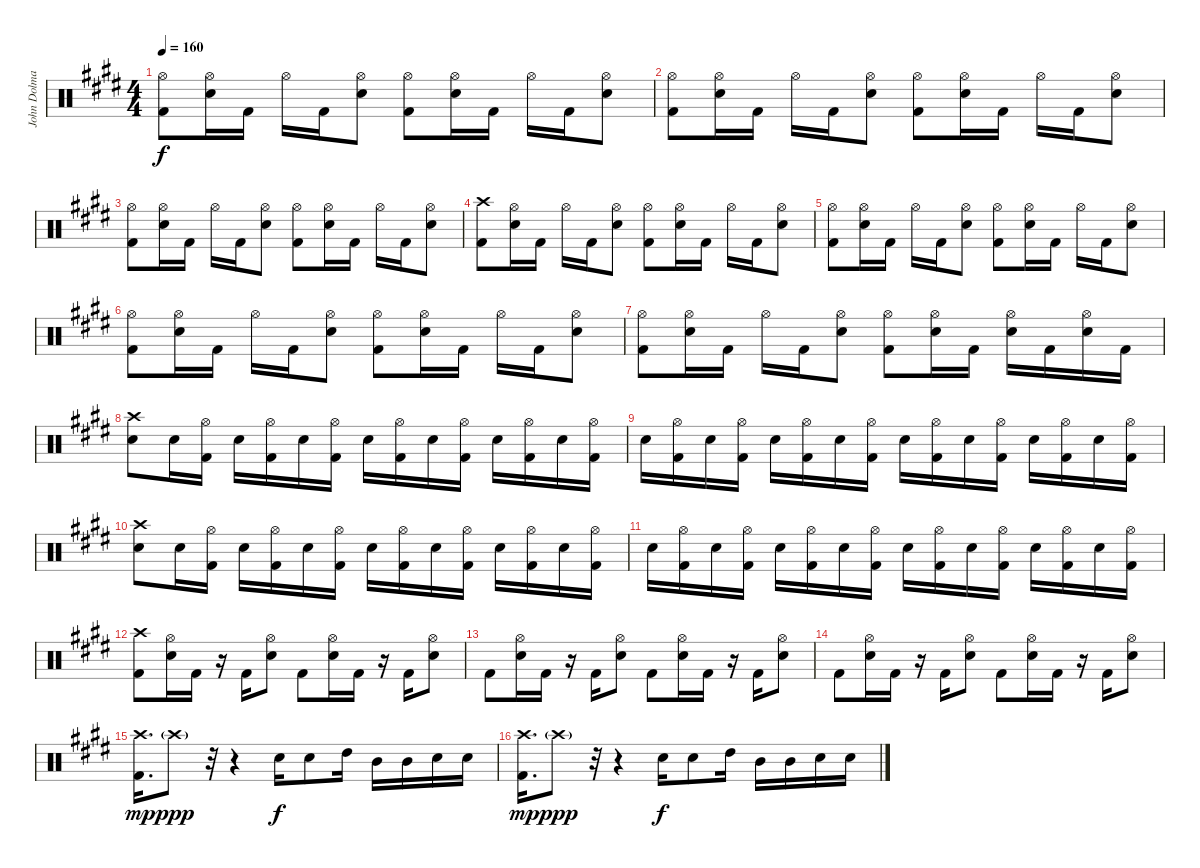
\track ("John Dolmayan [Drums]" "John Dolma") {instrument percussion}
\staff {score}
\articulation defaults
\ts (4 4)
\tempo 160
\clef neutral
\ks c#minor
("Hi-Hat (open)" "Kick (hit) 2").8{dy f} ("Hi-Hat (open)" "Electric Snare (hit)").16 "Kick (hit) 2".16 "Hi-Hat (open)".16 "Kick (hit) 2".16 ("Hi-Hat (open)" "Electric Snare (hit)").8 ("Hi-Hat (open)" "Kick (hit) 2").8 ("Hi-Hat (open)" "Electric Snare (hit)").16 "Kick (hit) 2".16 "Hi-Hat (open)".16 "Kick (hit) 2".16 ("Hi-Hat (open)" "Electric Snare (hit)").8 |
("Hi-Hat (open)" "Kick (hit) 2").8 ("Hi-Hat (open)" "Electric Snare (hit)").16 "Kick (hit) 2".16 "Hi-Hat (open)".16 "Kick (hit) 2".16 ("Hi-Hat (open)" "Electric Snare (hit)").8 ("Hi-Hat (open)" "Kick (hit) 2").8 ("Hi-Hat (open)" "Electric Snare (hit)").16 "Kick (hit) 2".16 "Hi-Hat (open)".16 "Kick (hit) 2".16 ("Hi-Hat (open)" "Electric Snare (hit)").8 |
("Hi-Hat (open)" "Kick (hit) 2").8 ("Hi-Hat (open)" "Electric Snare (hit)").16 "Kick (hit) 2".16 "Hi-Hat (open)".16 "Kick (hit) 2".16 ("Hi-Hat (open)" "Electric Snare (hit)").8 ("Hi-Hat (open)" "Kick (hit) 2").8 ("Hi-Hat (open)" "Electric Snare (hit)").16 "Kick (hit) 2".16 "Hi-Hat (open)".16 "Kick (hit) 2".16 ("Hi-Hat (open)" "Electric Snare (hit)").8 |
("Crash high (hit)" "Kick (hit) 2").8 ("Hi-Hat (open)" "Electric Snare (hit)").16 "Kick (hit) 2".16 "Hi-Hat (open)".16 "Kick (hit) 2".16 ("Hi-Hat (open)" "Electric Snare (hit)").8 ("Hi-Hat (open)" "Kick (hit) 2").8 ("Hi-Hat (open)" "Electric Snare (hit)").16 "Kick (hit) 2".16 "Hi-Hat (open)".16 "Kick (hit) 2".16 ("Hi-Hat (open)" "Electric Snare (hit)").8 |
("Hi-Hat (open)" "Kick (hit) 2").8 ("Hi-Hat (open)" "Electric Snare (hit)").16 "Kick (hit) 2".16 "Hi-Hat (open)".16 "Kick (hit) 2".16 ("Hi-Hat (open)" "Electric Snare (hit)").8 ("Hi-Hat (open)" "Kick (hit) 2").8 ("Hi-Hat (open)" "Electric Snare (hit)").16 "Kick (hit) 2".16 "Hi-Hat (open)".16 "Kick (hit) 2".16 ("Hi-Hat (open)" "Electric Snare (hit)").8 |
("Hi-Hat (open)" "Kick (hit) 2").8 ("Hi-Hat (open)" "Electric Snare (hit)").16 "Kick (hit) 2".16 "Hi-Hat (open)".16 "Kick (hit) 2".16 ("Hi-Hat (open)" "Electric Snare (hit)").8 ("Hi-Hat (open)" "Kick (hit) 2").8 ("Hi-Hat (open)" "Electric Snare (hit)").16 "Kick (hit) 2".16 "Hi-Hat (open)".16 "Kick (hit) 2".16 ("Hi-Hat (open)" "Electric Snare (hit)").8 |
("Hi-Hat (open)" "Kick (hit) 2").8 ("Hi-Hat (open)" "Electric Snare (hit)").16 "Kick (hit) 2".16 "Hi-Hat (open)".16 "Kick (hit) 2".16 ("Hi-Hat (open)" "Electric Snare (hit)").8 ("Hi-Hat (open)" "Kick (hit) 2").8 ("Hi-Hat (open)" "Electric Snare (hit)").16 "Kick (hit) 2".16 ("Hi-Hat (open)" "Electric Snare (hit)").16 "Kick (hit) 2".16 ("Hi-Hat (open)" "Electric Snare (hit)").16 "Kick (hit) 2".16 |
("Crash high (hit)" "Electric Snare (hit)").8 "Electric Snare (hit)".16 ("Hi-Hat (open)" "Kick (hit) 2").16 "Electric Snare (hit)".16 ("Hi-Hat (open)" "Kick (hit) 2").16 "Electric Snare (hit)".16 ("Hi-Hat (open)" "Kick (hit) 2").16 "Electric Snare (hit)".16 ("Hi-Hat (open)" "Kick (hit) 2").16 "Electric Snare (hit)".16 ("Hi-Hat (open)" "Kick (hit) 2").16 "Electric Snare (hit)".16 ("Hi-Hat (open)" "Kick (hit) 2").16 "Electric Snare (hit)".16 ("Hi-Hat (open)" "Kick (hit) 2").16 |
"Electric Snare (hit)".16 ("Hi-Hat (open)" "Kick (hit) 2").16 "Electric Snare (hit)".16 ("Hi-Hat (open)" "Kick (hit) 2").16 "Electric Snare (hit)".16 ("Hi-Hat (open)" "Kick (hit) 2").16 "Electric Snare (hit)".16 ("Hi-Hat (open)" "Kick (hit) 2").16 "Electric Snare (hit)".16 ("Hi-Hat (open)" "Kick (hit) 2").16 "Electric Snare (hit)".16 ("Hi-Hat (open)" "Kick (hit) 2").16 "Electric Snare (hit)".16 ("Hi-Hat (open)" "Kick (hit) 2").16 "Electric Snare (hit)".16 ("Hi-Hat (open)" "Kick (hit) 2").16 |
("Crash high (hit)" "Electric Snare (hit)").8 "Electric Snare (hit)".16 ("Hi-Hat (open)" "Kick (hit) 2").16 "Electric Snare (hit)".16 ("Hi-Hat (open)" "Kick (hit) 2").16 "Electric Snare (hit)".16 ("Hi-Hat (open)" "Kick (hit) 2").16 "Electric Snare (hit)".16 ("Hi-Hat (open)" "Kick (hit) 2").16 "Electric Snare (hit)".16 ("Hi-Hat (open)" "Kick (hit) 2").16 "Electric Snare (hit)".16 ("Hi-Hat (open)" "Kick (hit) 2").16 "Electric Snare (hit)".16 ("Hi-Hat (open)" "Kick (hit) 2").16 |
"Electric Snare (hit)".16 ("Hi-Hat (open)" "Kick (hit) 2").16 "Electric Snare (hit)".16 ("Hi-Hat (open)" "Kick (hit) 2").16 "Electric Snare (hit)".16 ("Hi-Hat (open)" "Kick (hit) 2").16 "Electric Snare (hit)".16 ("Hi-Hat (open)" "Kick (hit) 2").16 "Electric Snare (hit)".16 ("Hi-Hat (open)" "Kick (hit) 2").16 "Electric Snare (hit)".16 ("Hi-Hat (open)" "Kick (hit) 2").16 "Electric Snare (hit)".16 ("Hi-Hat (open)" "Kick (hit) 2").16 "Electric Snare (hit)".16 ("Hi-Hat (open)" "Kick (hit) 2").16 |
("Crash high (hit)" "Kick (hit) 2").8 ("Hi-Hat (open)" "Electric Snare (hit)").16 "Kick (hit) 2".16 r.16 "Kick (hit) 2".16 ("Hi-Hat (open)" "Electric Snare (hit)").8 "Kick (hit) 2".8 ("Hi-Hat (open)" "Electric Snare (hit)").16 "Kick (hit) 2".16 r.16 "Kick (hit) 2".16 ("Hi-Hat (open)" "Electric Snare (hit)").8 |
"Kick (hit) 2".8 ("Hi-Hat (open)" "Electric Snare (hit)").16 "Kick (hit) 2".16 r.16 "Kick (hit) 2".16 ("Hi-Hat (open)" "Electric Snare (hit)").8 "Kick (hit) 2".8 ("Hi-Hat (open)" "Electric Snare (hit)").16 "Kick (hit) 2".16 r.16 "Kick (hit) 2".16 ("Hi-Hat (open)" "Electric Snare (hit)").8 |
"Kick (hit) 2".8 ("Hi-Hat (open)" "Electric Snare (hit)").16 "Kick (hit) 2".16 r.16 "Kick (hit) 2".16 ("Hi-Hat (open)" "Electric Snare (hit)").8 "Kick (hit) 2".8 ("Hi-Hat (open)" "Electric Snare (hit)").16 "Kick (hit) 2".16 r.16 "Kick (hit) 2".16 ("Hi-Hat (open)" "Electric Snare (hit)").8 |
("Crash high (hit)" "Kick (hit) 2").16{d dy mp} "Crash high (hit)"{g}.8{dy ppp} r.32 r.4 "Electric Snare (hit)".16{dy f} "Electric Snare (hit)".8 "High Tom (hit)".16 "Mid Tom (hit)".16 "Mid Tom (hit)".16 "Electric Snare (hit)".16 "Electric Snare (hit)".16 |
("Crash high (hit)" "Kick (hit) 2").16{d dy mp} "Crash high (hit)"{g}.8{dy ppp} r.32 r.4 "Electric Snare (hit)".16{dy f} "Electric Snare (hit)".8 "High Tom (hit)".16 "Mid Tom (hit)".16 "Mid Tom (hit)".16 "Electric Snare (hit)".16 "Electric Snare (hit)".16
